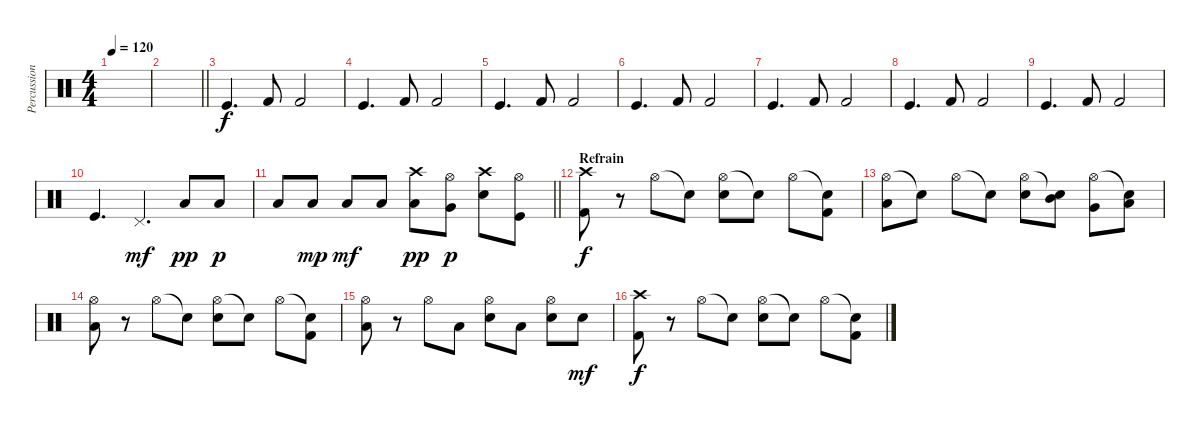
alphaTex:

\track ("Percussions" "Percussion") {instrument percussion}
\staff {score}
\articulation defaults
\ts (4 4)
\tempo 120
\clef neutral
\ks c
|
\barLineRight lightlight
|
"Kick (hit)".4{d} "Kick (hit) 2".8 "Kick (hit) 2".2 |
"Kick (hit)".4{d} "Kick (hit) 2".8 "Kick (hit) 2".2 |
"Kick (hit)".4{d} "Kick (hit) 2".8 "Kick (hit) 2".2 |
"Kick (hit)".4{d} "Kick (hit) 2".8 "Kick (hit) 2".2 |
"Kick (hit)".4{d} "Kick (hit) 2".8 "Kick (hit) 2".2 |
"Kick (hit)".4{d} "Kick (hit) 2".8 "Kick (hit) 2".2 |
"Kick (hit)".4{d} "Kick (hit) 2".8 "Kick (hit) 2".2 |
"Kick (hit)".4{d} "Pedal Hi-Hat (hit)".4{d dy mf} "Low Floor Tom (hit)".8{dy pp} "Low Floor Tom (hit)".8{dy p} |
\barLineRight lightlight "Low Floor Tom (hit)".8{volume 7} "Low Floor Tom (hit)".8{dy mp} "Low Floor Tom (hit)".8{dy mf} "Low Floor Tom (hit)".8
("Low Tom (hit)" "Crash high (hit)").8{dy pp} ("Very Low Tom (hit)" "Hi-Hat (open)").8{dy p} ("Snare (hit) 2" "Crash high (hit)").8 ("Kick (hit)" "Hi-Hat (open)").8 |
\section ("" "Refrain")
("Kick (hit) 2" "Crash high (hit)").8{dy f} r.8 "Hi-Hat (open)".8 "Snare (hit)"{t}.8 ("Hi-Hat (open)" "Snare (hit) 2").8 "Snare (hit)"{t}.8 "Hi-Hat (open)".8 ("Snare (hit)"{t} "Kick (hit) 2").8 |
("Hi-Hat (open)" "Low Tom (hit)").8 "Snare (hit)"{t}.8 "Hi-Hat (open)".8 "Snare (hit)"{t}.8 ("Hi-Hat (open)" "Snare (hit) 2").8 ("Snare (hit)"{t} "Mid Tom (hit)").8 ("Hi-Hat (open)" "Very Low Tom (hit)").8 ("Snare (hit)"{t} "Low Floor Tom (hit)").8 |
("Hi-Hat (open)" "Low Tom (hit)").8 r.8 "Hi-Hat (open)".8 "Snare (hit)"{t}.8 ("Hi-Hat (open)" "Snare (hit) 2").8 "Snare (hit)"{t}.8 "Hi-Hat (open)".8 ("Snare (hit)"{t} "Kick (hit) 2").8 |
("Hi-Hat (open)" "Low Tom (hit)").8 r.8 "Hi-Hat (open)".8 "Low Tom (hit)".8 ("Hi-Hat (open)" "Snare (hit) 2").8 "Low Floor Tom (hit)".8 ("Hi-Hat (open)" "Snare (hit) 2").8 "Snare (hit) 2".8{dy mf} |
("Kick (hit) 2" "Crash high (hit)").8{dy f} r.8 "Hi-Hat (open)".8 "Snare (hit)"{t}.8 ("Hi-Hat (open)" "Snare (hit) 2").8 "Snare (hit)"{t}.8 "Hi-Hat (open)".8 ("Snare (hit)"{t} "Kick (hit) 2").8
